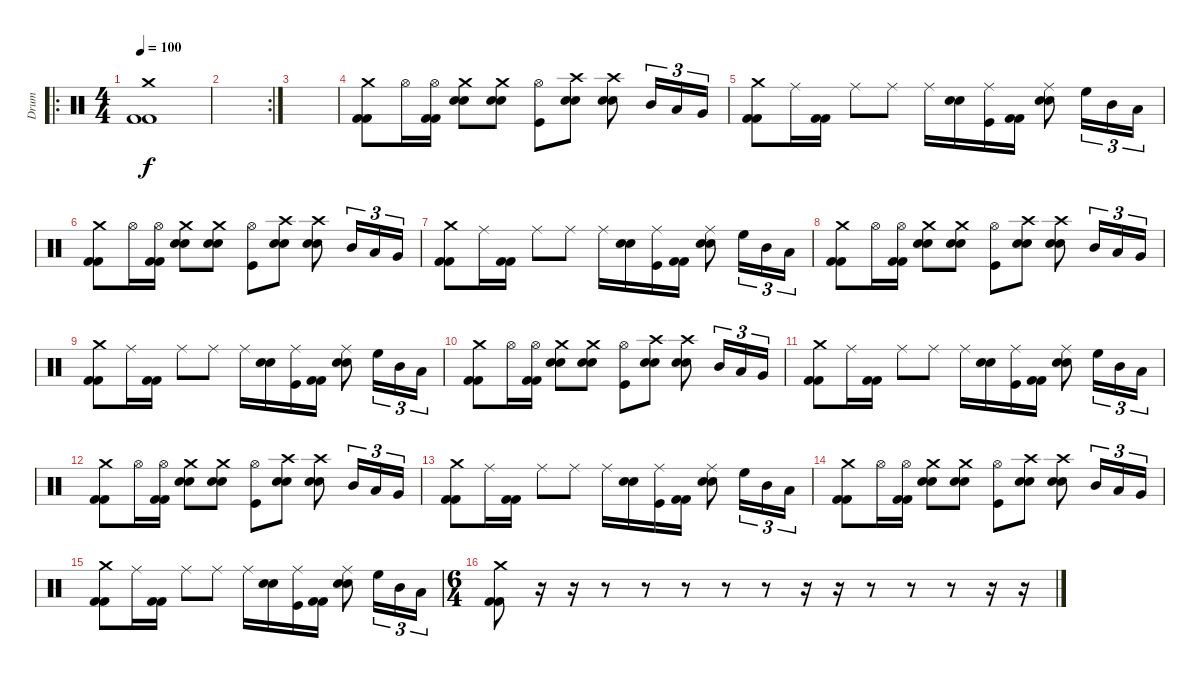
\track ("Drum" "Drum") {instrument percussion}
\staff {score}
\articulation defaults
\ro
\ts (4 4)
\tempo 100
\clef neutral
\ks c
("Crash medium (hit)" "Kick (hit) 2" "Kick (hit) 2").1{dy f} |
\rc 2
|
|
("Crash medium (hit)" "Kick (hit) 2" "Kick (hit) 2").8 "Hi-Hat (open)".16 ("Hi-Hat (open)" "Kick (hit) 2" "Kick (hit) 2").16 ("Crash medium (hit)" "Snare (hit) 2" "Snare (hit) 2").8 ("Crash medium (hit)" "Snare (hit) 2" "Snare (hit) 2").8 ("Hi-Hat (open)" "Kick (hit)").8 ("Crash high (hit)" "Snare (hit) 2" "Snare (hit) 2").8 ("Crash high (hit)" "Snare (hit) 2" "Snare (hit) 2").8 "Mid Tom (hit)".16{tu (3 2)} "Low Tom (hit)".16{tu (3 2)} "Very Low Tom (hit)".16{tu (3 2)} |
("Crash medium (hit)" "Kick (hit) 2" "Kick (hit) 2").8 "Ride (middle)".16 ("Kick (hit) 2" "Kick (hit) 2").16 "Ride (middle)".8 "Ride (middle)".8 "Ride (middle)".16 ("Snare (hit) 2" "Snare (hit) 2").16 ("Ride (middle)" "Kick (hit)").16 ("Kick (hit) 2" "Kick (hit) 2").16 ("Ride (middle)" "Snare (hit) 2" "Snare (hit) 2").8 "High Floor Tom (hit)".16{tu (3 2)} "Mid Tom (hit)".16{tu (3 2)} "Low Tom (hit)".16{tu (3 2)} |
("Crash medium (hit)" "Kick (hit) 2" "Kick (hit) 2").8 "Hi-Hat (open)".16 ("Hi-Hat (open)" "Kick (hit) 2" "Kick (hit) 2").16 ("Crash medium (hit)" "Snare (hit) 2" "Snare (hit) 2").8 ("Crash medium (hit)" "Snare (hit) 2" "Snare (hit) 2").8 ("Hi-Hat (open)" "Kick (hit)").8 ("Crash high (hit)" "Snare (hit) 2" "Snare (hit) 2").8 ("Crash high (hit)" "Snare (hit) 2" "Snare (hit) 2").8 "Mid Tom (hit)".16{tu (3 2)} "Low Tom (hit)".16{tu (3 2)} "Very Low Tom (hit)".16{tu (3 2)} |
("Crash medium (hit)" "Kick (hit) 2" "Kick (hit) 2").8 "Ride (middle)".16 ("Kick (hit) 2" "Kick (hit) 2").16 "Ride (middle)".8 "Ride (middle)".8 "Ride (middle)".16 ("Snare (hit) 2" "Snare (hit) 2").16 ("Ride (middle)" "Kick (hit)").16 ("Kick (hit) 2" "Kick (hit) 2").16 ("Ride (middle)" "Snare (hit) 2" "Snare (hit) 2").8 "High Floor Tom (hit)".16{tu (3 2)} "Mid Tom (hit)".16{tu (3 2)} "Low Tom (hit)".16{tu (3 2)} |
("Crash medium (hit)" "Kick (hit) 2" "Kick (hit) 2").8 "Hi-Hat (open)".16 ("Hi-Hat (open)" "Kick (hit) 2" "Kick (hit) 2").16 ("Crash medium (hit)" "Snare (hit) 2" "Snare (hit) 2").8 ("Crash medium (hit)" "Snare (hit) 2" "Snare (hit) 2").8 ("Hi-Hat (open)" "Kick (hit)").8 ("Crash high (hit)" "Snare (hit) 2" "Snare (hit) 2").8 ("Crash high (hit)" "Snare (hit) 2" "Snare (hit) 2").8 "Mid Tom (hit)".16{tu (3 2)} "Low Tom (hit)".16{tu (3 2)} "Very Low Tom (hit)".16{tu (3 2)} |
("Crash medium (hit)" "Kick (hit) 2" "Kick (hit) 2").8 "Ride (middle)".16 ("Kick (hit) 2" "Kick (hit) 2").16 "Ride (middle)".8 "Ride (middle)".8 "Ride (middle)".16 ("Snare (hit) 2" "Snare (hit) 2").16 ("Ride (middle)" "Kick (hit)").16 ("Kick (hit) 2" "Kick (hit) 2").16 ("Ride (middle)" "Snare (hit) 2" "Snare (hit) 2").8 "High Floor Tom (hit)".16{tu (3 2)} "Mid Tom (hit)".16{tu (3 2)} "Low Tom (hit)".16{tu (3 2)} |
("Crash medium (hit)" "Kick (hit) 2" "Kick (hit) 2").8 "Hi-Hat (open)".16 ("Hi-Hat (open)" "Kick (hit) 2" "Kick (hit) 2").16 ("Crash medium (hit)" "Snare (hit) 2" "Snare (hit) 2").8 ("Crash medium (hit)" "Snare (hit) 2" "Snare (hit) 2").8 ("Hi-Hat (open)" "Kick (hit)").8 ("Crash high (hit)" "Snare (hit) 2" "Snare (hit) 2").8 ("Crash high (hit)" "Snare (hit) 2" "Snare (hit) 2").8 "Mid Tom (hit)".16{tu (3 2)} "Low Tom (hit)".16{tu (3 2)} "Very Low Tom (hit)".16{tu (3 2)} |
("Crash medium (hit)" "Kick (hit) 2" "Kick (hit) 2").8 "Ride (middle)".16 ("Kick (hit) 2" "Kick (hit) 2").16 "Ride (middle)".8 "Ride (middle)".8 "Ride (middle)".16 ("Snare (hit) 2" "Snare (hit) 2").16 ("Ride (middle)" "Kick (hit)").16 ("Kick (hit) 2" "Kick (hit) 2").16 ("Ride (middle)" "Snare (hit) 2" "Snare (hit) 2").8 "High Floor Tom (hit)".16{tu (3 2)} "Mid Tom (hit)".16{tu (3 2)} "Low Tom (hit)".16{tu (3 2)} |
("Crash medium (hit)" "Kick (hit) 2" "Kick (hit) 2").8 "Hi-Hat (open)".16 ("Hi-Hat (open)" "Kick (hit) 2" "Kick (hit) 2").16 ("Crash medium (hit)" "Snare (hit) 2" "Snare (hit) 2").8 ("Crash medium (hit)" "Snare (hit) 2" "Snare (hit) 2").8 ("Hi-Hat (open)" "Kick (hit)").8 ("Crash high (hit)" "Snare (hit) 2" "Snare (hit) 2").8 ("Crash high (hit)" "Snare (hit) 2" "Snare (hit) 2").8 "Mid Tom (hit)".16{tu (3 2)} "Low Tom (hit)".16{tu (3 2)} "Very Low Tom (hit)".16{tu (3 2)} |
("Crash medium (hit)" "Kick (hit) 2" "Kick (hit) 2").8 "Ride (middle)".16 ("Kick (hit) 2" "Kick (hit) 2").16 "Ride (middle)".8 "Ride (middle)".8 "Ride (middle)".16 ("Snare (hit) 2" "Snare (hit) 2").16 ("Ride (middle)" "Kick (hit)").16 ("Kick (hit) 2" "Kick (hit) 2").16 ("Ride (middle)" "Snare (hit) 2" "Snare (hit) 2").8 "High Floor Tom (hit)".16{tu (3 2)} "Mid Tom (hit)".16{tu (3 2)} "Low Tom (hit)".16{tu (3 2)} |
("Crash medium (hit)" "Kick (hit) 2" "Kick (hit) 2").8 "Hi-Hat (open)".16 ("Hi-Hat (open)" "Kick (hit) 2" "Kick (hit) 2").16 ("Crash medium (hit)" "Snare (hit) 2" "Snare (hit) 2").8 ("Crash medium (hit)" "Snare (hit) 2" "Snare (hit) 2").8 ("Hi-Hat (open)" "Kick (hit)").8 ("Crash high (hit)" "Snare (hit) 2" "Snare (hit) 2").8 ("Crash high (hit)" "Snare (hit) 2" "Snare (hit) 2").8 "Mid Tom (hit)".16{tu (3 2)} "Low Tom (hit)".16{tu (3 2)} "Very Low Tom (hit)".16{tu (3 2)} |
("Crash medium (hit)" "Kick (hit) 2" "Kick (hit) 2").8 "Ride (middle)".16 ("Kick (hit) 2" "Kick (hit) 2").16 "Ride (middle)".8 "Ride (middle)".8 "Ride (middle)".16 ("Snare (hit) 2" "Snare (hit) 2").16 ("Ride (middle)" "Kick (hit)").16 ("Kick (hit) 2" "Kick (hit) 2").16 ("Ride (middle)" "Snare (hit) 2" "Snare (hit) 2").8 "High Floor Tom (hit)".16{tu (3 2)} "Mid Tom (hit)".16{tu (3 2)} "Low Tom (hit)".16{tu (3 2)} |
\ts (6 4)
("Crash medium (hit)" "Kick (hit) 2" "Kick (hit) 2").8 r.16 r.16 r.8 r.8 r.8 r.8 r.8 r.16 r.16 r.8 r.8 r.8 r.16 r.16
